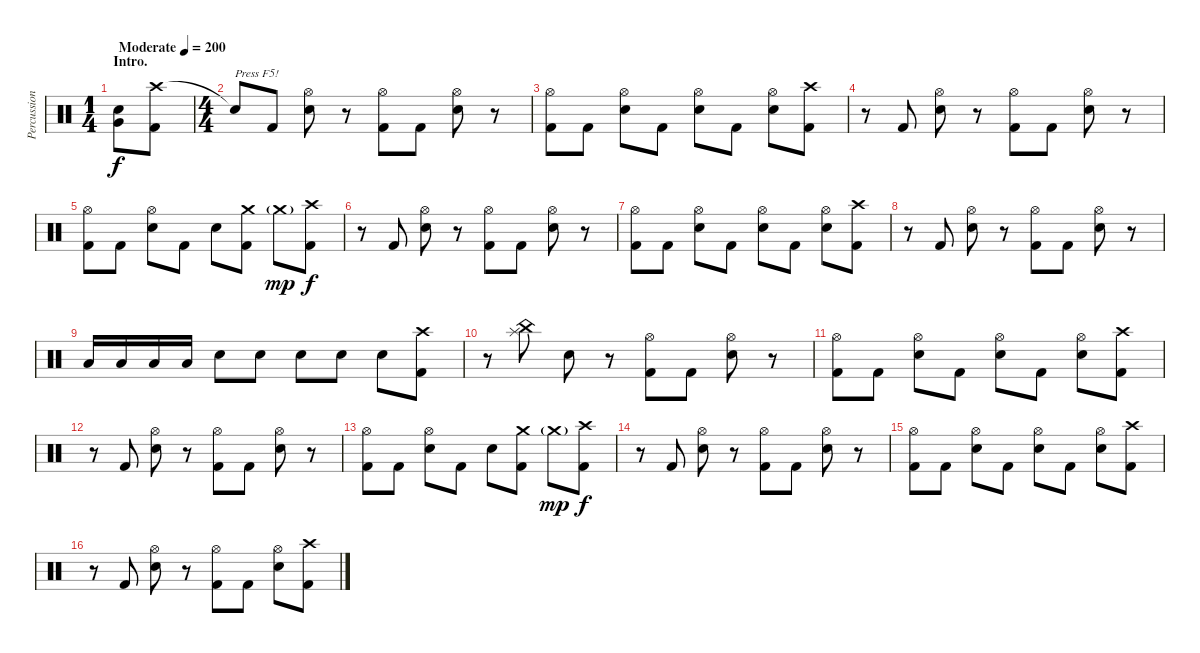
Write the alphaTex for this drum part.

\track ("Percussion" "Percussion") {instrument percussion}
\staff {score}
\articulation defaults
\ts (1 4)
\section ("" "Intro.")
\tempo (200 "Moderate")
\clef neutral
\ks c
("Very Low Tom (hit)" "Electric Snare (hit)").8{dy f} ("Crash high (hit)" "Kick (hit) 2").8 |
\ts (4 4)
"Snare (hit)"{t}.8{txt "Press F5!"} "Kick (hit) 2".8 ("Hi-Hat (open)" "Electric Snare (hit)").8 r.8 ("Hi-Hat (open)" "Kick (hit) 2").8 "Kick (hit) 2".8 ("Hi-Hat (open)" "Electric Snare (hit)").8 r.8 |
("Hi-Hat (open)" "Kick (hit) 2").8 "Kick (hit) 2".8 ("Hi-Hat (open)" "Electric Snare (hit)").8 "Kick (hit) 2".8 ("Hi-Hat (open)" "Electric Snare (hit)").8 "Kick (hit) 2".8 ("Hi-Hat (open)" "Electric Snare (hit)").8 ("Crash high (hit)" "Kick (hit) 2").8 |
r.8 "Kick (hit) 2".8 ("Hi-Hat (open)" "Electric Snare (hit)").8 r.8 ("Hi-Hat (open)" "Kick (hit) 2").8 "Kick (hit) 2".8 ("Hi-Hat (open)" "Electric Snare (hit)").8 r.8 |
("Hi-Hat (open)" "Kick (hit) 2").8 "Kick (hit) 2".8 ("Hi-Hat (open)" "Electric Snare (hit)").8 "Kick (hit) 2".8 "Electric Snare (hit)".8 ("Crash medium (hit)" "Kick (hit) 2").8 "Crash medium (hit)"{g}.8{dy mp volume 0} ("Crash high (hit)" "Kick (hit) 2").8{dy f volume 13} |
r.8 "Kick (hit) 2".8 ("Hi-Hat (open)" "Electric Snare (hit)").8 r.8 ("Hi-Hat (open)" "Kick (hit) 2").8 "Kick (hit) 2".8 ("Hi-Hat (open)" "Electric Snare (hit)").8 r.8 |
("Hi-Hat (open)" "Kick (hit) 2").8 "Kick (hit) 2".8 ("Hi-Hat (open)" "Electric Snare (hit)").8 "Kick (hit) 2".8 ("Hi-Hat (open)" "Electric Snare (hit)").8 "Kick (hit) 2".8 ("Hi-Hat (open)" "Electric Snare (hit)").8 ("Crash high (hit)" "Kick (hit) 2").8 |
r.8 "Kick (hit) 2".8 ("Hi-Hat (open)" "Electric Snare (hit)").8 r.8 ("Hi-Hat (open)" "Kick (hit) 2").8 "Kick (hit) 2".8 ("Hi-Hat (open)" "Electric Snare (hit)").8 r.8 |
"Low Tom (hit)".16 "Low Tom (hit)".16 "Low Tom (hit)".16 "Low Tom (hit)".16 "Electric Snare (hit)".8 "Electric Snare (hit)".8 "Electric Snare (hit)".8 "Electric Snare (hit)".8 "Electric Snare (hit)".8 ("Crash high (hit)" "Kick (hit) 2").8 |
r.8 ("China (hit)" "Splash (hit)").8 "Electric Snare (hit)".8 r.8 ("Hi-Hat (open)" "Kick (hit) 2").8 "Kick (hit) 2".8 ("Hi-Hat (open)" "Electric Snare (hit)").8 r.8 |
("Hi-Hat (open)" "Kick (hit) 2").8 "Kick (hit) 2".8 ("Hi-Hat (open)" "Electric Snare (hit)").8 "Kick (hit) 2".8 ("Hi-Hat (open)" "Electric Snare (hit)").8 "Kick (hit) 2".8 ("Hi-Hat (open)" "Electric Snare (hit)").8 ("Crash high (hit)" "Kick (hit) 2").8 |
r.8 "Kick (hit) 2".8 ("Hi-Hat (open)" "Electric Snare (hit)").8 r.8 ("Hi-Hat (open)" "Kick (hit) 2").8 "Kick (hit) 2".8 ("Hi-Hat (open)" "Electric Snare (hit)").8 r.8 |
("Hi-Hat (open)" "Kick (hit) 2").8 "Kick (hit) 2".8 ("Hi-Hat (open)" "Electric Snare (hit)").8 "Kick (hit) 2".8 "Electric Snare (hit)".8 ("Crash medium (hit)" "Kick (hit) 2").8 "Crash medium (hit)"{g}.8{dy mp volume 0} ("Crash high (hit)" "Kick (hit) 2").8{dy f volume 13} |
r.8 "Kick (hit) 2".8 ("Hi-Hat (open)" "Electric Snare (hit)").8 r.8 ("Hi-Hat (open)" "Kick (hit) 2").8 "Kick (hit) 2".8 ("Hi-Hat (open)" "Electric Snare (hit)").8 r.8 |
("Hi-Hat (open)" "Kick (hit) 2").8 "Kick (hit) 2".8 ("Hi-Hat (open)" "Electric Snare (hit)").8 "Kick (hit) 2".8 ("Hi-Hat (open)" "Electric Snare (hit)").8 "Kick (hit) 2".8 ("Hi-Hat (open)" "Electric Snare (hit)").8 ("Crash high (hit)" "Kick (hit) 2").8 |
r.8 "Kick (hit) 2".8 ("Hi-Hat (open)" "Electric Snare (hit)").8 r.8 ("Hi-Hat (open)" "Kick (hit) 2").8 "Kick (hit) 2".8 ("Hi-Hat (open)" "Electric Snare (hit)").8 ("Crash high (hit)" "Kick (hit) 2").8
